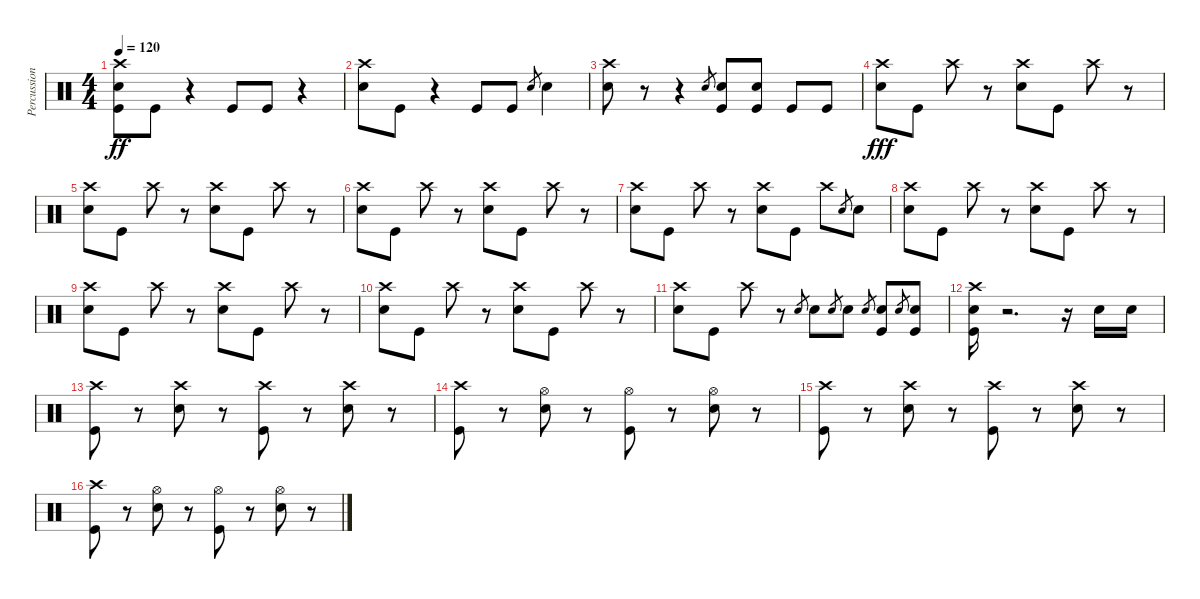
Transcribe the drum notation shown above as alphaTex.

\track ("Percussion" "Percussion") {instrument percussion}
\staff {score}
\articulation defaults
\ts (4 4)
\tempo 120
\clef neutral
\ks c
("Crash high (hit)" "Snare (hit) 2" "Kick (hit)").8{dy ff} "Kick (hit)".8 r.4 "Kick (hit)".8 "Kick (hit)".8 r.4 |
("Crash high (hit)" "Snare (hit) 2").8 "Kick (hit)".8 r.4 "Kick (hit)".8 "Kick (hit)".8 "Snare (hit) 2".8{gr} "Snare (hit) 2".4 |
("Crash high (hit)" "Snare (hit) 2").8 r.8 r.4 "Snare (hit) 2".8{gr} ("Snare (hit) 2" "Kick (hit)").8 ("Snare (hit) 2" "Kick (hit)").8 "Kick (hit)".8 "Kick (hit)".8 |
("Crash high (hit)" "Snare (hit) 2").8{dy fff} "Kick (hit)".8 "Crash high (hit)".8 r.8 ("Crash high (hit)" "Snare (hit) 2").8 "Kick (hit)".8 "Crash high (hit)".8 r.8 |
("Crash high (hit)" "Snare (hit) 2").8 "Kick (hit)".8 "Crash high (hit)".8 r.8 ("Crash high (hit)" "Snare (hit) 2").8 "Kick (hit)".8 "Crash high (hit)".8 r.8 |
("Crash high (hit)" "Snare (hit) 2").8 "Kick (hit)".8 "Crash high (hit)".8 r.8 ("Crash high (hit)" "Snare (hit) 2").8 "Kick (hit)".8 "Crash high (hit)".8 r.8 |
("Crash high (hit)" "Snare (hit) 2").8 "Kick (hit)".8 "Crash high (hit)".8 r.8 ("Crash high (hit)" "Snare (hit) 2").8 "Kick (hit)".8 "Crash high (hit)".8 "Snare (hit) 2".8{gr} "Snare (hit) 2".8 |
("Crash high (hit)" "Snare (hit) 2").8 "Kick (hit)".8 "Crash high (hit)".8 r.8 ("Crash high (hit)" "Snare (hit) 2").8 "Kick (hit)".8 "Crash high (hit)".8 r.8 |
("Crash high (hit)" "Snare (hit) 2").8 "Kick (hit)".8 "Crash high (hit)".8 r.8 ("Crash high (hit)" "Snare (hit) 2").8 "Kick (hit)".8 "Crash high (hit)".8 r.8 |
("Crash high (hit)" "Snare (hit) 2").8 "Kick (hit)".8 "Crash high (hit)".8 r.8 ("Crash high (hit)" "Snare (hit) 2").8 "Kick (hit)".8 "Crash high (hit)".8 r.8 |
("Crash high (hit)" "Snare (hit) 2").8 "Kick (hit)".8 "Crash high (hit)".8 r.8 "Snare (hit) 2".8{gr} "Snare (hit) 2".8 "Snare (hit) 2".8{gr} "Snare (hit) 2".8 "Snare (hit) 2".8{gr} ("Snare (hit) 2" "Kick (hit)").8 "Snare (hit) 2".8{gr} ("Snare (hit) 2" "Kick (hit)").8 |
("Crash high (hit)" "Snare (hit) 2" "Kick (hit)").16 r.2{d} r.16 "Snare (hit) 2".16 "Snare (hit) 2".16 |
("Crash high (hit)" "Kick (hit)").8 r.8 ("Crash high (hit)" "Snare (hit) 2").8 r.8 ("Crash high (hit)" "Kick (hit)").8 r.8 ("Crash high (hit)" "Snare (hit) 2").8 r.8 |
("Crash high (hit)" "Kick (hit)").8 r.8 ("Hi-Hat (open)" "Snare (hit) 2").8 r.8 ("Hi-Hat (open)" "Kick (hit)").8 r.8 ("Hi-Hat (open)" "Snare (hit) 2").8 r.8 |
("Crash high (hit)" "Kick (hit)").8 r.8 ("Crash high (hit)" "Snare (hit) 2").8 r.8 ("Crash high (hit)" "Kick (hit)").8 r.8 ("Crash high (hit)" "Snare (hit) 2").8 r.8 |
("Crash high (hit)" "Kick (hit)").8 r.8 ("Hi-Hat (open)" "Snare (hit) 2").8 r.8 ("Hi-Hat (open)" "Kick (hit)").8 r.8 ("Hi-Hat (open)" "Snare (hit) 2").8 r.8
